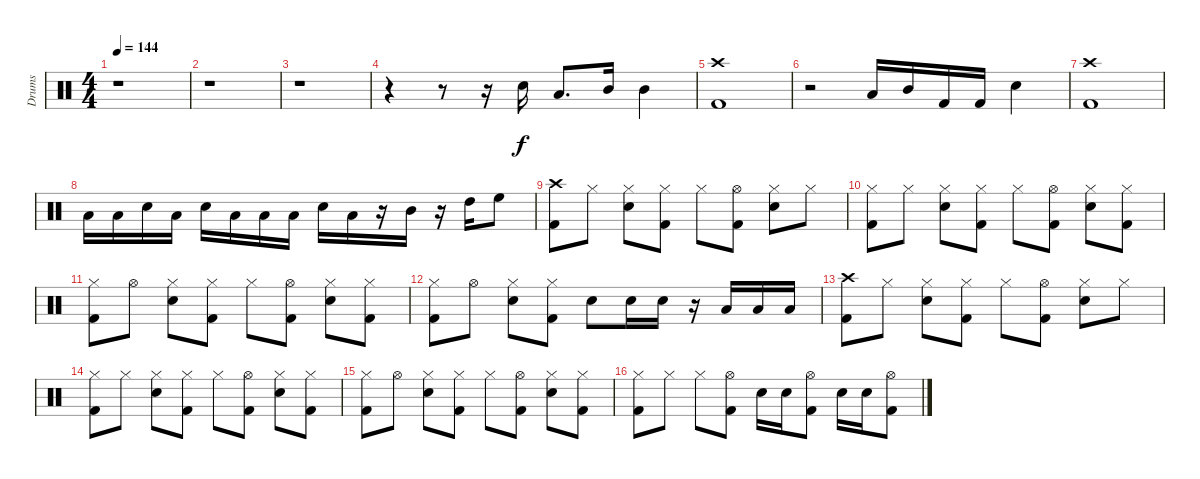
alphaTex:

\track ("Drums" "Drums") {instrument percussion}
\staff {score}
\articulation defaults
\ts (4 4)
\tempo 144
\clef neutral
\ks c
r.1{dy f} |
r.1 |
r.1 |
r.4 r.8 r.16 "Snare (hit) 2".16 "Low Tom (hit)".8{d} "Mid Tom (hit)".16 "Mid Tom (hit)".4 |
("Crash high (hit)" "Kick (hit) 2").1 |
r.2 "Low Tom (hit)".16 "Mid Tom (hit)".16 "Kick (hit) 2".16 "Kick (hit) 2".16 "Snare (hit) 2".4 |
("Crash high (hit)" "Kick (hit) 2").1 |
"Low Tom (hit)".16 "Low Floor Tom (hit)".16 "Snare (hit) 2".16 "Low Floor Tom (hit)".16 "Snare (hit) 2".16 "Low Floor Tom (hit)".16 "Low Tom (hit)".16 "Low Floor Tom (hit)".16 "Snare (hit) 2".16 "Low Tom (hit)".16 r.16 "Mid Tom (hit)".16 r.16 "High Tom (hit)".16 "High Floor Tom (hit)".8 |
("Crash high (hit)" "Kick (hit) 2").8 "Hi-Hat (closed)".8 ("Hi-Hat (closed)" "Snare (hit) 2").8 ("Hi-Hat (closed)" "Kick (hit) 2").8 "Hi-Hat (closed)".8 ("Hi-Hat (open)" "Kick (hit) 2").8 ("Hi-Hat (closed)" "Snare (hit) 2").8 "Hi-Hat (closed)".8 |
("Hi-Hat (closed)" "Kick (hit) 2").8 "Hi-Hat (closed)".8 ("Hi-Hat (closed)" "Snare (hit) 2").8 ("Hi-Hat (closed)" "Kick (hit) 2").8 "Hi-Hat (closed)".8 ("Hi-Hat (open)" "Kick (hit) 2").8 ("Hi-Hat (closed)" "Snare (hit) 2").8 ("Hi-Hat (closed)" "Kick (hit) 2").8 |
("Hi-Hat (closed)" "Kick (hit) 2").8 "Hi-Hat (open)".8 ("Hi-Hat (closed)" "Snare (hit) 2").8 ("Hi-Hat (closed)" "Kick (hit) 2").8 "Hi-Hat (closed)".8 ("Hi-Hat (open)" "Kick (hit) 2").8 ("Hi-Hat (closed)" "Snare (hit) 2").8 ("Hi-Hat (closed)" "Kick (hit) 2").8 |
("Hi-Hat (closed)" "Kick (hit) 2").8 "Hi-Hat (open)".8 ("Hi-Hat (closed)" "Snare (hit) 2").8 ("Hi-Hat (closed)" "Kick (hit) 2").8 "Snare (hit) 2".8 "Snare (hit) 2".16 "Snare (hit) 2".16 r.16 "Low Floor Tom (hit)".16 "Low Floor Tom (hit)".16 "Low Floor Tom (hit)".16 |
("Crash high (hit)" "Kick (hit) 2").8 "Hi-Hat (closed)".8 ("Hi-Hat (closed)" "Snare (hit) 2").8 ("Hi-Hat (closed)" "Kick (hit) 2").8 "Hi-Hat (closed)".8 ("Hi-Hat (open)" "Kick (hit) 2").8 ("Hi-Hat (closed)" "Snare (hit) 2").8 "Hi-Hat (closed)".8 |
("Hi-Hat (closed)" "Kick (hit) 2").8 "Hi-Hat (closed)".8 ("Hi-Hat (closed)" "Snare (hit) 2").8 ("Hi-Hat (closed)" "Kick (hit) 2").8 "Hi-Hat (closed)".8 ("Hi-Hat (open)" "Kick (hit) 2").8 ("Hi-Hat (closed)" "Snare (hit) 2").8 ("Hi-Hat (closed)" "Kick (hit) 2").8 |
("Hi-Hat (closed)" "Kick (hit) 2").8 "Hi-Hat (open)".8 ("Hi-Hat (closed)" "Snare (hit) 2").8 ("Hi-Hat (closed)" "Kick (hit) 2").8 "Hi-Hat (closed)".8 ("Hi-Hat (open)" "Kick (hit) 2").8 ("Hi-Hat (closed)" "Snare (hit) 2").8 ("Hi-Hat (closed)" "Kick (hit) 2").8 |
("Hi-Hat (closed)" "Kick (hit) 2").8 "Hi-Hat (closed)".8 "Hi-Hat (closed)".8 ("Hi-Hat (open)" "Kick (hit) 2").8 "Snare (hit) 2".16 "Snare (hit) 2".16 ("Hi-Hat (open)" "Kick (hit) 2").8 "Snare (hit) 2".16 "Snare (hit) 2".16 ("Hi-Hat (open)" "Kick (hit) 2").8
